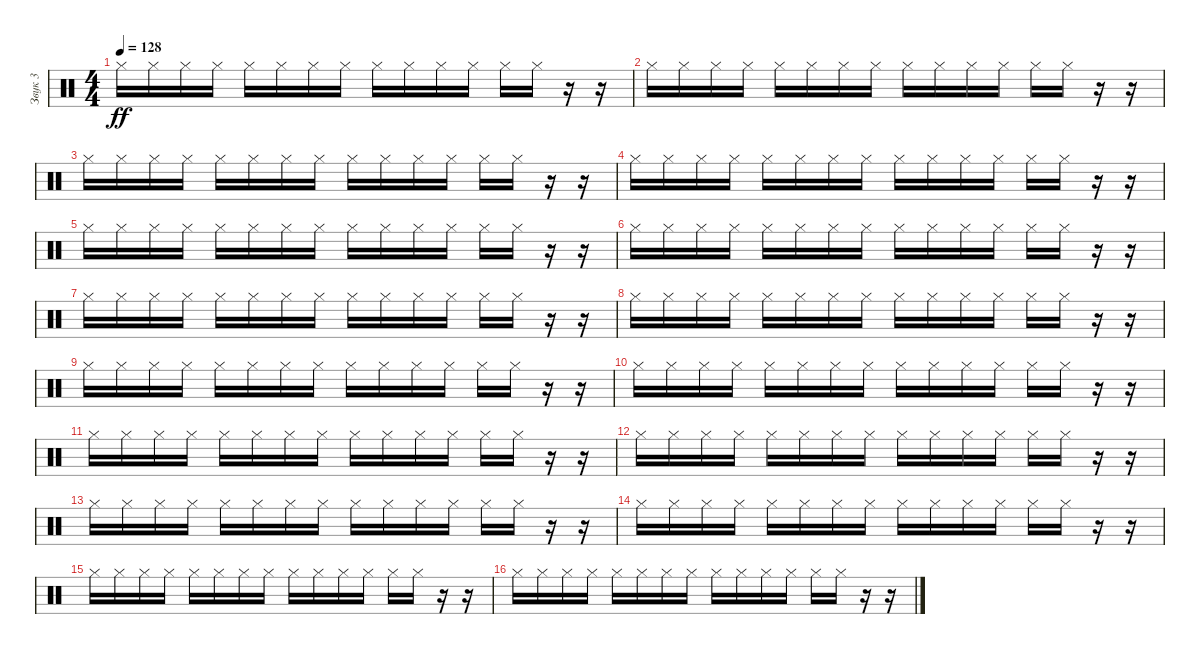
\track ("Звук 3" "Звук 3") {instrument percussion}
\staff {score}
\articulation defaults
\ts (4 4)
\tempo 128
\clef neutral
\ks c "Hi-Hat (closed)".16{dy ff} "Hi-Hat (closed)".16 "Hi-Hat (closed)".16 "Hi-Hat (closed)".16 "Hi-Hat (closed)".16 "Hi-Hat (closed)".16 "Hi-Hat (closed)".16 "Hi-Hat (closed)".16 "Hi-Hat (closed)".16 "Hi-Hat (closed)".16 "Hi-Hat (closed)".16 "Hi-Hat (closed)".16 "Hi-Hat (closed)".16 "Hi-Hat (closed)".16
r.16 r.16 |
"Hi-Hat (closed)".16 "Hi-Hat (closed)".16 "Hi-Hat (closed)".16 "Hi-Hat (closed)".16 "Hi-Hat (closed)".16 "Hi-Hat (closed)".16 "Hi-Hat (closed)".16 "Hi-Hat (closed)".16 "Hi-Hat (closed)".16 "Hi-Hat (closed)".16 "Hi-Hat (closed)".16 "Hi-Hat (closed)".16 "Hi-Hat (closed)".16 "Hi-Hat (closed)".16 r.16 r.16 |
"Hi-Hat (closed)".16 "Hi-Hat (closed)".16 "Hi-Hat (closed)".16 "Hi-Hat (closed)".16 "Hi-Hat (closed)".16 "Hi-Hat (closed)".16 "Hi-Hat (closed)".16 "Hi-Hat (closed)".16 "Hi-Hat (closed)".16 "Hi-Hat (closed)".16 "Hi-Hat (closed)".16 "Hi-Hat (closed)".16 "Hi-Hat (closed)".16 "Hi-Hat (closed)".16 r.16 r.16 |
"Hi-Hat (closed)".16 "Hi-Hat (closed)".16 "Hi-Hat (closed)".16 "Hi-Hat (closed)".16 "Hi-Hat (closed)".16 "Hi-Hat (closed)".16 "Hi-Hat (closed)".16 "Hi-Hat (closed)".16 "Hi-Hat (closed)".16 "Hi-Hat (closed)".16 "Hi-Hat (closed)".16 "Hi-Hat (closed)".16 "Hi-Hat (closed)".16 "Hi-Hat (closed)".16 r.16 r.16 |
"Hi-Hat (closed)".16 "Hi-Hat (closed)".16 "Hi-Hat (closed)".16 "Hi-Hat (closed)".16 "Hi-Hat (closed)".16 "Hi-Hat (closed)".16 "Hi-Hat (closed)".16 "Hi-Hat (closed)".16 "Hi-Hat (closed)".16 "Hi-Hat (closed)".16 "Hi-Hat (closed)".16 "Hi-Hat (closed)".16 "Hi-Hat (closed)".16 "Hi-Hat (closed)".16 r.16 r.16 |
"Hi-Hat (closed)".16 "Hi-Hat (closed)".16 "Hi-Hat (closed)".16 "Hi-Hat (closed)".16 "Hi-Hat (closed)".16 "Hi-Hat (closed)".16 "Hi-Hat (closed)".16 "Hi-Hat (closed)".16 "Hi-Hat (closed)".16 "Hi-Hat (closed)".16 "Hi-Hat (closed)".16 "Hi-Hat (closed)".16 "Hi-Hat (closed)".16 "Hi-Hat (closed)".16 r.16 r.16 |
"Hi-Hat (closed)".16 "Hi-Hat (closed)".16 "Hi-Hat (closed)".16 "Hi-Hat (closed)".16 "Hi-Hat (closed)".16 "Hi-Hat (closed)".16 "Hi-Hat (closed)".16 "Hi-Hat (closed)".16 "Hi-Hat (closed)".16 "Hi-Hat (closed)".16 "Hi-Hat (closed)".16 "Hi-Hat (closed)".16 "Hi-Hat (closed)".16 "Hi-Hat (closed)".16 r.16 r.16 |
"Hi-Hat (closed)".16 "Hi-Hat (closed)".16 "Hi-Hat (closed)".16 "Hi-Hat (closed)".16 "Hi-Hat (closed)".16 "Hi-Hat (closed)".16 "Hi-Hat (closed)".16 "Hi-Hat (closed)".16 "Hi-Hat (closed)".16 "Hi-Hat (closed)".16 "Hi-Hat (closed)".16 "Hi-Hat (closed)".16 "Hi-Hat (closed)".16 "Hi-Hat (closed)".16 r.16 r.16 |
"Hi-Hat (closed)".16 "Hi-Hat (closed)".16 "Hi-Hat (closed)".16 "Hi-Hat (closed)".16 "Hi-Hat (closed)".16 "Hi-Hat (closed)".16 "Hi-Hat (closed)".16 "Hi-Hat (closed)".16 "Hi-Hat (closed)".16 "Hi-Hat (closed)".16 "Hi-Hat (closed)".16 "Hi-Hat (closed)".16 "Hi-Hat (closed)".16 "Hi-Hat (closed)".16 r.16 r.16 |
"Hi-Hat (closed)".16 "Hi-Hat (closed)".16 "Hi-Hat (closed)".16 "Hi-Hat (closed)".16 "Hi-Hat (closed)".16 "Hi-Hat (closed)".16 "Hi-Hat (closed)".16 "Hi-Hat (closed)".16 "Hi-Hat (closed)".16 "Hi-Hat (closed)".16 "Hi-Hat (closed)".16 "Hi-Hat (closed)".16 "Hi-Hat (closed)".16 "Hi-Hat (closed)".16 r.16 r.16 |
"Hi-Hat (closed)".16 "Hi-Hat (closed)".16 "Hi-Hat (closed)".16 "Hi-Hat (closed)".16 "Hi-Hat (closed)".16 "Hi-Hat (closed)".16 "Hi-Hat (closed)".16 "Hi-Hat (closed)".16 "Hi-Hat (closed)".16 "Hi-Hat (closed)".16 "Hi-Hat (closed)".16 "Hi-Hat (closed)".16 "Hi-Hat (closed)".16 "Hi-Hat (closed)".16 r.16 r.16 |
"Hi-Hat (closed)".16 "Hi-Hat (closed)".16 "Hi-Hat (closed)".16 "Hi-Hat (closed)".16 "Hi-Hat (closed)".16 "Hi-Hat (closed)".16 "Hi-Hat (closed)".16 "Hi-Hat (closed)".16 "Hi-Hat (closed)".16 "Hi-Hat (closed)".16 "Hi-Hat (closed)".16 "Hi-Hat (closed)".16 "Hi-Hat (closed)".16 "Hi-Hat (closed)".16 r.16 r.16 |
"Hi-Hat (closed)".16 "Hi-Hat (closed)".16 "Hi-Hat (closed)".16 "Hi-Hat (closed)".16 "Hi-Hat (closed)".16 "Hi-Hat (closed)".16 "Hi-Hat (closed)".16 "Hi-Hat (closed)".16 "Hi-Hat (closed)".16 "Hi-Hat (closed)".16 "Hi-Hat (closed)".16 "Hi-Hat (closed)".16 "Hi-Hat (closed)".16 "Hi-Hat (closed)".16 r.16 r.16 |
"Hi-Hat (closed)".16 "Hi-Hat (closed)".16 "Hi-Hat (closed)".16 "Hi-Hat (closed)".16 "Hi-Hat (closed)".16 "Hi-Hat (closed)".16 "Hi-Hat (closed)".16 "Hi-Hat (closed)".16 "Hi-Hat (closed)".16 "Hi-Hat (closed)".16 "Hi-Hat (closed)".16 "Hi-Hat (closed)".16 "Hi-Hat (closed)".16 "Hi-Hat (closed)".16 r.16 r.16 |
"Hi-Hat (closed)".16 "Hi-Hat (closed)".16 "Hi-Hat (closed)".16 "Hi-Hat (closed)".16 "Hi-Hat (closed)".16 "Hi-Hat (closed)".16 "Hi-Hat (closed)".16 "Hi-Hat (closed)".16 "Hi-Hat (closed)".16 "Hi-Hat (closed)".16 "Hi-Hat (closed)".16 "Hi-Hat (closed)".16 "Hi-Hat (closed)".16 "Hi-Hat (closed)".16 r.16 r.16 |
"Hi-Hat (closed)".16 "Hi-Hat (closed)".16 "Hi-Hat (closed)".16 "Hi-Hat (closed)".16 "Hi-Hat (closed)".16 "Hi-Hat (closed)".16 "Hi-Hat (closed)".16 "Hi-Hat (closed)".16 "Hi-Hat (closed)".16 "Hi-Hat (closed)".16 "Hi-Hat (closed)".16 "Hi-Hat (closed)".16 "Hi-Hat (closed)".16 "Hi-Hat (closed)".16 r.16 r.16
